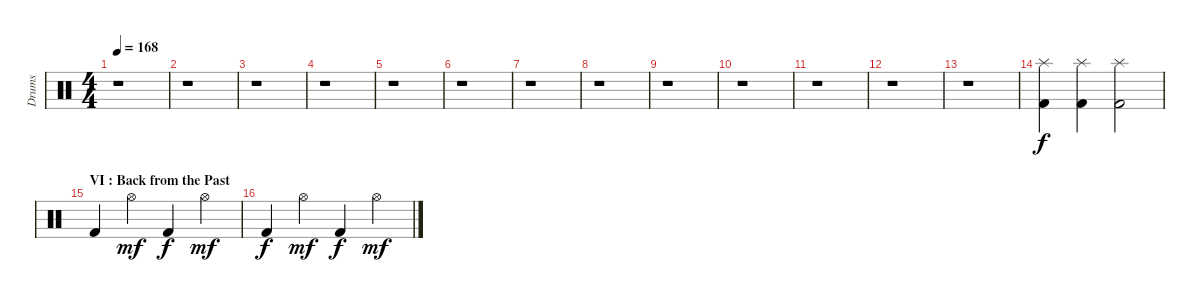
\track ("Drums" "Drums") {instrument percussion}
\staff {score}
\articulation defaults
\ts (4 4)
\tempo 168
\clef neutral
\ks c
r.1{dy f} |
r.1 |
r.1 |
r.1 |
r.1 |
r.1 |
r.1 |
r.1 |
r.1 |
r.1 |
r.1 |
r.1 |
r.1 |
("Kick (hit) 2" "Splash (hit)").4 ("Kick (hit) 2" "Splash (hit)").4 ("Kick (hit) 2" "Splash (hit)").2 |
\section ("" "VI : Back from the Past")
"Kick (hit) 2".4 "Hi-Hat (open)".4{dy mf} "Kick (hit) 2".4{dy f} "Hi-Hat (open)".4{dy mf} |
"Kick (hit) 2".4{dy f} "Hi-Hat (open)".4{dy mf} "Kick (hit) 2".4{dy f} "Hi-Hat (open)".4{dy mf}
